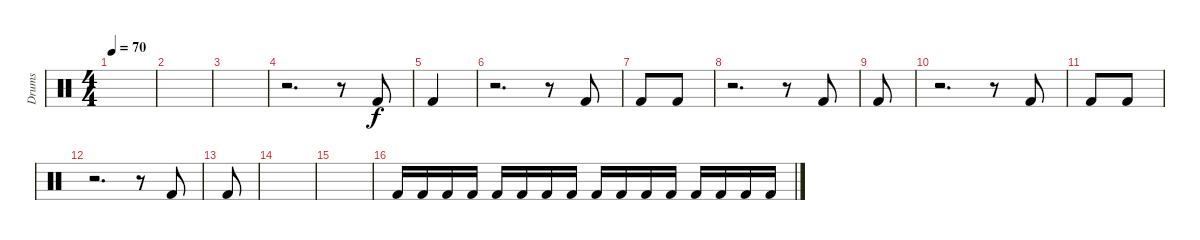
\track ("Drums" "Drums") {instrument percussion}
\staff {score}
\articulation defaults
\ts (4 4)
\tempo 70
\clef neutral
\ks c
|
|
|
r.2{d} r.8 "Kick (hit) 2".8 |
"Kick (hit) 2".4 |
r.2{d} r.8 "Kick (hit) 2".8 |
"Kick (hit) 2".8 "Kick (hit) 2".8 |
r.2{d} r.8 "Kick (hit) 2".8 |
"Kick (hit) 2".8 |
r.2{d} r.8 "Kick (hit) 2".8 |
"Kick (hit) 2".8 "Kick (hit) 2".8 |
r.2{d} r.8 "Kick (hit) 2".8 |
"Kick (hit) 2".8 |
|
|
"Kick (hit) 2".16{volume 16} "Kick (hit) 2".16 "Kick (hit) 2".16 "Kick (hit) 2".16 "Kick (hit) 2".16 "Kick (hit) 2".16 "Kick (hit) 2".16 "Kick (hit) 2".16 "Kick (hit) 2".16 "Kick (hit) 2".16 "Kick (hit) 2".16 "Kick (hit) 2".16 "Kick (hit) 2".16 "Kick (hit) 2".16 "Kick (hit) 2".16 "Kick (hit) 2".16
